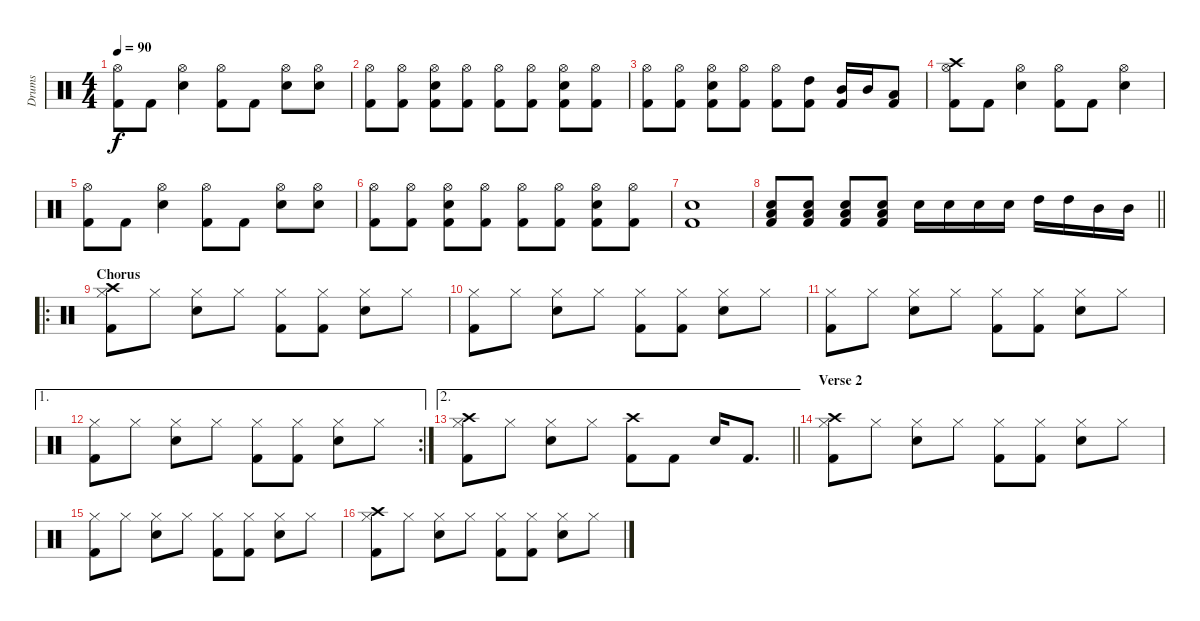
\track ("Drums" "Drums") {instrument percussion}
\staff {score}
\articulation defaults
\ts (4 4)
\tempo 90
\clef neutral
\ks c
("Hi-Hat (open)" "Kick (hit) 2").8{dy f} "Kick (hit) 2".8 ("Hi-Hat (open)" "Snare (hit) 2").4 ("Hi-Hat (open)" "Kick (hit) 2").8 "Kick (hit) 2".8 ("Hi-Hat (open)" "Snare (hit) 2").8 ("Hi-Hat (open)" "Snare (hit) 2").8 |
("Hi-Hat (open)" "Kick (hit) 2").8 ("Hi-Hat (open)" "Kick (hit) 2").8 ("Hi-Hat (open)" "Snare (hit) 2" "Kick (hit) 2").8 ("Hi-Hat (open)" "Kick (hit) 2").8 ("Hi-Hat (open)" "Kick (hit) 2").8 ("Hi-Hat (open)" "Kick (hit) 2").8 ("Hi-Hat (open)" "Snare (hit) 2" "Kick (hit) 2").8 ("Hi-Hat (open)" "Kick (hit) 2").8 |
("Hi-Hat (open)" "Kick (hit) 2").8 ("Hi-Hat (open)" "Kick (hit) 2").8 ("Hi-Hat (open)" "Snare (hit) 2" "Kick (hit) 2").8 ("Hi-Hat (open)" "Kick (hit) 2").8 ("Hi-Hat (open)" "Kick (hit) 2").8 ("High Tom (hit)" "Kick (hit) 2").8 ("Mid Tom (hit)" "Kick (hit) 2").16 "Mid Tom (hit)".16 ("Low Tom (hit)" "Kick (hit) 2").8 |
("Crash high (hit)" "Hi-Hat (open)" "Kick (hit) 2").8 "Kick (hit) 2".8 ("Hi-Hat (open)" "Snare (hit) 2").4 ("Hi-Hat (open)" "Kick (hit) 2").8 "Kick (hit) 2".8 ("Hi-Hat (open)" "Snare (hit) 2").4 |
("Hi-Hat (open)" "Kick (hit) 2").8 "Kick (hit) 2".8 ("Hi-Hat (open)" "Snare (hit) 2").4 ("Hi-Hat (open)" "Kick (hit) 2").8 "Kick (hit) 2".8 ("Hi-Hat (open)" "Snare (hit) 2").8 ("Hi-Hat (open)" "Snare (hit) 2").8 |
("Hi-Hat (open)" "Kick (hit) 2").8 ("Hi-Hat (open)" "Kick (hit) 2").8 ("Hi-Hat (open)" "Snare (hit) 2" "Kick (hit) 2").8 ("Hi-Hat (open)" "Kick (hit) 2").8 ("Hi-Hat (open)" "Kick (hit) 2").8 ("Hi-Hat (open)" "Kick (hit) 2").8 ("Hi-Hat (open)" "Snare (hit) 2" "Kick (hit) 2").8 ("Hi-Hat (open)" "Kick (hit) 2").8 |
("Snare (hit) 2" "Kick (hit) 2").1 |
\barLineRight lightlight
("Snare (hit) 2" "Low Tom (hit)" "Kick (hit) 2").8 ("Snare (hit) 2" "Low Tom (hit)" "Kick (hit) 2").8 ("Snare (hit) 2" "Low Tom (hit)" "Kick (hit) 2").8 ("Snare (hit) 2" "Low Tom (hit)" "Kick (hit) 2").8 "Snare (hit) 2".16 "Snare (hit) 2".16 "Snare (hit) 2".16 "Snare (hit) 2".16 "High Tom (hit)".16 "High Tom (hit)".16 "Mid Tom (hit)".16 "Mid Tom (hit)".16 |
\ro
\section ("" "Chorus")
("Crash high (hit)" "Hi-Hat (closed)" "Kick (hit) 2").8 "Hi-Hat (closed)".8 ("Hi-Hat (closed)" "Snare (hit) 2").8 "Hi-Hat (closed)".8 ("Hi-Hat (closed)" "Kick (hit) 2").8 ("Hi-Hat (closed)" "Kick (hit) 2").8 ("Hi-Hat (closed)" "Snare (hit) 2").8 "Hi-Hat (closed)".8 |
("Hi-Hat (closed)" "Kick (hit) 2").8 "Hi-Hat (closed)".8 ("Hi-Hat (closed)" "Snare (hit) 2").8 "Hi-Hat (closed)".8 ("Hi-Hat (closed)" "Kick (hit) 2").8 ("Hi-Hat (closed)" "Kick (hit) 2").8 ("Hi-Hat (closed)" "Snare (hit) 2").8 "Hi-Hat (closed)".8 |
("Hi-Hat (closed)" "Kick (hit) 2").8 "Hi-Hat (closed)".8 ("Hi-Hat (closed)" "Snare (hit) 2").8 "Hi-Hat (closed)".8 ("Hi-Hat (closed)" "Kick (hit) 2").8 ("Hi-Hat (closed)" "Kick (hit) 2").8 ("Hi-Hat (closed)" "Snare (hit) 2").8 "Hi-Hat (closed)".8 |
\ae 1
\rc 2
("Hi-Hat (closed)" "Kick (hit) 2").8 "Hi-Hat (closed)".8 ("Hi-Hat (closed)" "Snare (hit) 2").8 "Hi-Hat (closed)".8 ("Hi-Hat (closed)" "Kick (hit) 2").8 ("Hi-Hat (closed)" "Kick (hit) 2").8 ("Hi-Hat (closed)" "Snare (hit) 2").8 "Hi-Hat (closed)".8 |
\ae 2
\barLineRight lightlight
("Crash high (hit)" "Hi-Hat (closed)" "Kick (hit) 2").8 "Hi-Hat (closed)".8 ("Hi-Hat (closed)" "Snare (hit) 2").8 "Hi-Hat (closed)".8 ("Crash high (hit)" "Kick (hit) 2").8 "Kick (hit) 2".8 "Snare (hit) 2".16 "Kick (hit) 2".8{d} |
\section ("" "Verse 2")
("Crash high (hit)" "Hi-Hat (closed)" "Kick (hit) 2").8 "Hi-Hat (closed)".8 ("Hi-Hat (closed)" "Snare (hit) 2").8 "Hi-Hat (closed)".8 ("Hi-Hat (closed)" "Kick (hit) 2").8 ("Hi-Hat (closed)" "Kick (hit) 2").8 ("Hi-Hat (closed)" "Snare (hit) 2").8 "Hi-Hat (closed)".8 |
("Hi-Hat (closed)" "Kick (hit) 2").8 "Hi-Hat (closed)".8 ("Hi-Hat (closed)" "Snare (hit) 2").8 "Hi-Hat (closed)".8 ("Hi-Hat (closed)" "Kick (hit) 2").8 ("Hi-Hat (closed)" "Kick (hit) 2").8 ("Hi-Hat (closed)" "Snare (hit) 2").8 "Hi-Hat (closed)".8 |
("Crash high (hit)" "Hi-Hat (closed)" "Kick (hit) 2").8 "Hi-Hat (closed)".8 ("Hi-Hat (closed)" "Snare (hit) 2").8 "Hi-Hat (closed)".8 ("Hi-Hat (closed)" "Kick (hit) 2").8 ("Hi-Hat (closed)" "Kick (hit) 2").8 ("Hi-Hat (closed)" "Snare (hit) 2").8 "Hi-Hat (closed)".8
